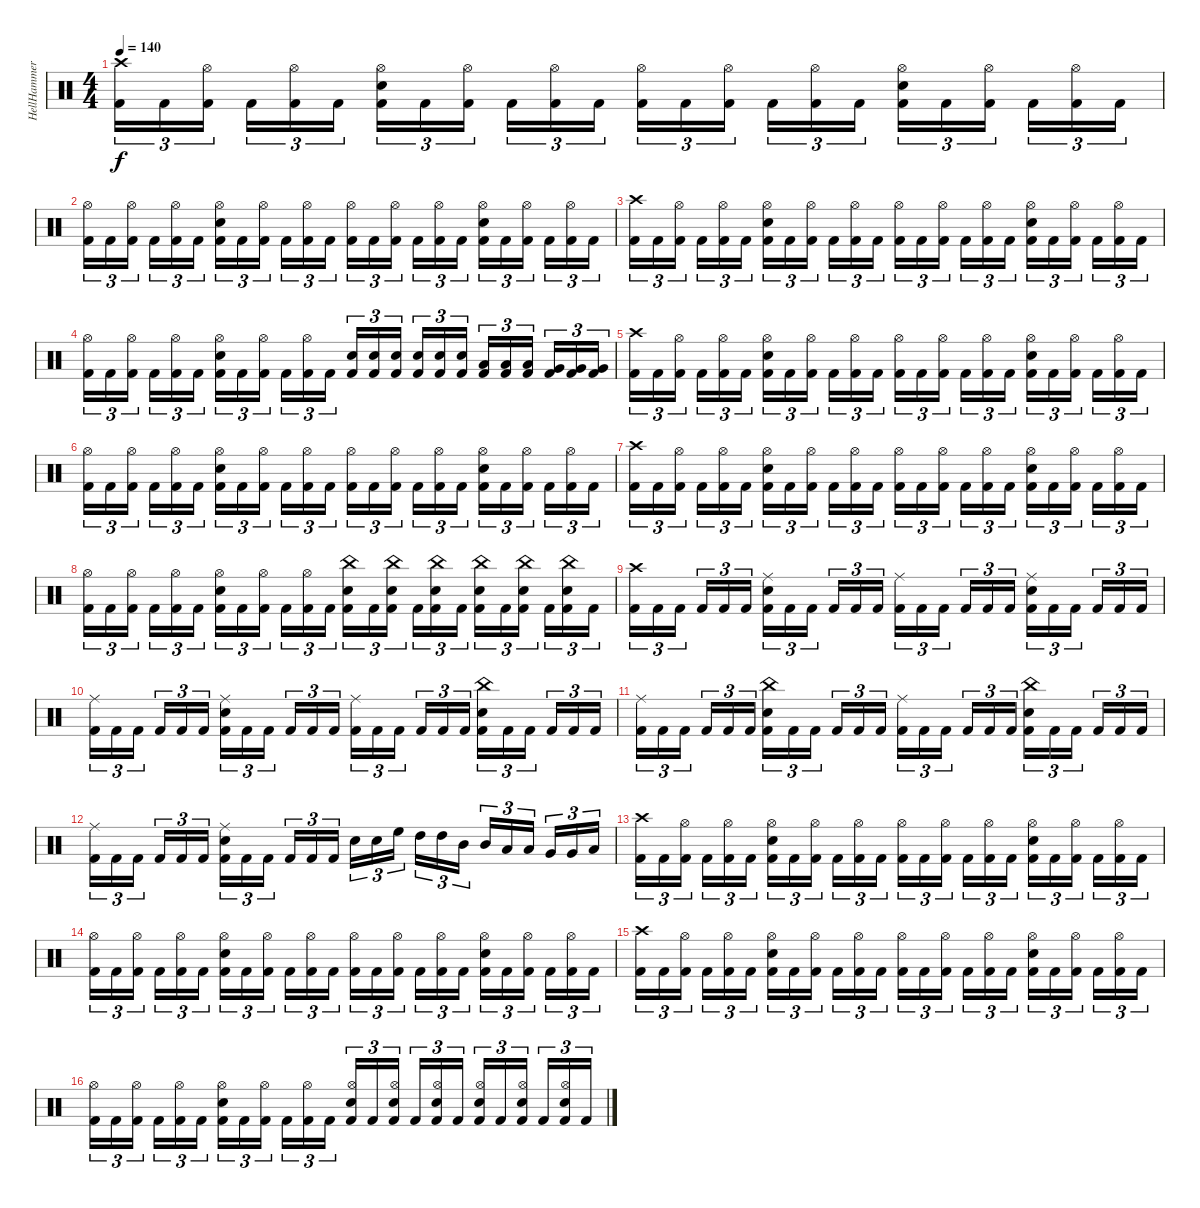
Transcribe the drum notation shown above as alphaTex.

\track ("HellHammer" "HellHammer") {instrument percussion}
\staff {score}
\articulation defaults
\ts (4 4)
\tempo 140
\clef neutral
\ks c
("Crash high (hit)" "Kick (hit) 2").16{tu (3 2) dy f} "Kick (hit) 2".16{tu (3 2)} ("Hi-Hat (open)" "Kick (hit) 2").16{tu (3 2) beam splitsecondary} "Kick (hit) 2".16{tu (3 2)} ("Hi-Hat (open)" "Kick (hit) 2").16{tu (3 2)} "Kick (hit) 2".16{tu (3 2)} ("Hi-Hat (open)" "Electric Snare (hit)" "Kick (hit) 2").16{tu (3 2)} "Kick (hit) 2".16{tu (3 2)} ("Hi-Hat (open)" "Kick (hit) 2").16{tu (3 2) beam splitsecondary} "Kick (hit) 2".16{tu (3 2)} ("Hi-Hat (open)" "Kick (hit) 2").16{tu (3 2)} "Kick (hit) 2".16{tu (3 2)} ("Hi-Hat (open)" "Kick (hit) 2").16{tu (3 2)} "Kick (hit) 2".16{tu (3 2)} ("Hi-Hat (open)" "Kick (hit) 2").16{tu (3 2) beam splitsecondary} "Kick (hit) 2".16{tu (3 2)} ("Hi-Hat (open)" "Kick (hit) 2").16{tu (3 2)} "Kick (hit) 2".16{tu (3 2)} ("Hi-Hat (open)" "Electric Snare (hit)" "Kick (hit) 2").16{tu (3 2)} "Kick (hit) 2".16{tu (3 2)} ("Hi-Hat (open)" "Kick (hit) 2").16{tu (3 2) beam splitsecondary} "Kick (hit) 2".16{tu (3 2)} ("Hi-Hat (open)" "Kick (hit) 2").16{tu (3 2)} "Kick (hit) 2".16{tu (3 2)} |
("Hi-Hat (open)" "Kick (hit) 2").16{tu (3 2)} "Kick (hit) 2".16{tu (3 2)} ("Hi-Hat (open)" "Kick (hit) 2").16{tu (3 2) beam splitsecondary} "Kick (hit) 2".16{tu (3 2)} ("Hi-Hat (open)" "Kick (hit) 2").16{tu (3 2)} "Kick (hit) 2".16{tu (3 2)} ("Hi-Hat (open)" "Electric Snare (hit)" "Kick (hit) 2").16{tu (3 2)} "Kick (hit) 2".16{tu (3 2)} ("Hi-Hat (open)" "Kick (hit) 2").16{tu (3 2) beam splitsecondary} "Kick (hit) 2".16{tu (3 2)} ("Hi-Hat (open)" "Kick (hit) 2").16{tu (3 2)} "Kick (hit) 2".16{tu (3 2)} ("Hi-Hat (open)" "Kick (hit) 2").16{tu (3 2)} "Kick (hit) 2".16{tu (3 2)} ("Hi-Hat (open)" "Kick (hit) 2").16{tu (3 2) beam splitsecondary} "Kick (hit) 2".16{tu (3 2)} ("Hi-Hat (open)" "Kick (hit) 2").16{tu (3 2)} "Kick (hit) 2".16{tu (3 2)} ("Hi-Hat (open)" "Electric Snare (hit)" "Kick (hit) 2").16{tu (3 2)} "Kick (hit) 2".16{tu (3 2)} ("Hi-Hat (open)" "Kick (hit) 2").16{tu (3 2) beam splitsecondary} "Kick (hit) 2".16{tu (3 2)} ("Hi-Hat (open)" "Kick (hit) 2").16{tu (3 2)} "Kick (hit) 2".16{tu (3 2)} |
("Crash high (hit)" "Kick (hit) 2").16{tu (3 2)} "Kick (hit) 2".16{tu (3 2)} ("Hi-Hat (open)" "Kick (hit) 2").16{tu (3 2) beam splitsecondary} "Kick (hit) 2".16{tu (3 2)} ("Hi-Hat (open)" "Kick (hit) 2").16{tu (3 2)} "Kick (hit) 2".16{tu (3 2)} ("Hi-Hat (open)" "Electric Snare (hit)" "Kick (hit) 2").16{tu (3 2)} "Kick (hit) 2".16{tu (3 2)} ("Hi-Hat (open)" "Kick (hit) 2").16{tu (3 2) beam splitsecondary} "Kick (hit) 2".16{tu (3 2)} ("Hi-Hat (open)" "Kick (hit) 2").16{tu (3 2)} "Kick (hit) 2".16{tu (3 2)} ("Hi-Hat (open)" "Kick (hit) 2").16{tu (3 2)} "Kick (hit) 2".16{tu (3 2)} ("Hi-Hat (open)" "Kick (hit) 2").16{tu (3 2) beam splitsecondary} "Kick (hit) 2".16{tu (3 2)} ("Hi-Hat (open)" "Kick (hit) 2").16{tu (3 2)} "Kick (hit) 2".16{tu (3 2)} ("Hi-Hat (open)" "Electric Snare (hit)" "Kick (hit) 2").16{tu (3 2)} "Kick (hit) 2".16{tu (3 2)} ("Hi-Hat (open)" "Kick (hit) 2").16{tu (3 2) beam splitsecondary} "Kick (hit) 2".16{tu (3 2)} ("Hi-Hat (open)" "Kick (hit) 2").16{tu (3 2)} "Kick (hit) 2".16{tu (3 2)} |
("Hi-Hat (open)" "Kick (hit) 2").16{tu (3 2)} "Kick (hit) 2".16{tu (3 2)} ("Hi-Hat (open)" "Kick (hit) 2").16{tu (3 2) beam splitsecondary} "Kick (hit) 2".16{tu (3 2)} ("Hi-Hat (open)" "Kick (hit) 2").16{tu (3 2)} "Kick (hit) 2".16{tu (3 2)} ("Hi-Hat (open)" "Electric Snare (hit)" "Kick (hit) 2").16{tu (3 2)} "Kick (hit) 2".16{tu (3 2)} ("Hi-Hat (open)" "Kick (hit) 2").16{tu (3 2) beam splitsecondary} "Kick (hit) 2".16{tu (3 2)} ("Hi-Hat (open)" "Kick (hit) 2").16{tu (3 2)} "Kick (hit) 2".16{tu (3 2)} ("Electric Snare (hit)" "Kick (hit) 2").16{tu (3 2)} ("Electric Snare (hit)" "Kick (hit) 2").16{tu (3 2)} ("Electric Snare (hit)" "Kick (hit) 2").16{tu (3 2) beam splitsecondary} ("Electric Snare (hit)" "Kick (hit) 2").16{tu (3 2)} ("Electric Snare (hit)" "Kick (hit) 2").16{tu (3 2)} ("Electric Snare (hit)" "Kick (hit) 2").16{tu (3 2)} ("Low Tom (hit)" "Kick (hit) 2").16{tu (3 2)} ("Low Tom (hit)" "Kick (hit) 2").16{tu (3 2)} ("Low Tom (hit)" "Kick (hit) 2").16{tu (3 2) beam splitsecondary} ("Very Low Tom (hit)" "Kick (hit) 2").16{tu (3 2)} ("Very Low Tom (hit)" "Kick (hit) 2").16{tu (3 2)} ("Very Low Tom (hit)" "Kick (hit) 2").16{tu (3 2)} |
("Crash high (hit)" "Kick (hit) 2").16{tu (3 2)} "Kick (hit) 2".16{tu (3 2)} ("Hi-Hat (open)" "Kick (hit) 2").16{tu (3 2) beam splitsecondary} "Kick (hit) 2".16{tu (3 2)} ("Hi-Hat (open)" "Kick (hit) 2").16{tu (3 2)} "Kick (hit) 2".16{tu (3 2)} ("Hi-Hat (open)" "Electric Snare (hit)" "Kick (hit) 2").16{tu (3 2)} "Kick (hit) 2".16{tu (3 2)} ("Hi-Hat (open)" "Kick (hit) 2").16{tu (3 2) beam splitsecondary} "Kick (hit) 2".16{tu (3 2)} ("Hi-Hat (open)" "Kick (hit) 2").16{tu (3 2)} "Kick (hit) 2".16{tu (3 2)} ("Hi-Hat (open)" "Kick (hit) 2").16{tu (3 2)} "Kick (hit) 2".16{tu (3 2)} ("Hi-Hat (open)" "Kick (hit) 2").16{tu (3 2) beam splitsecondary} "Kick (hit) 2".16{tu (3 2)} ("Hi-Hat (open)" "Kick (hit) 2").16{tu (3 2)} "Kick (hit) 2".16{tu (3 2)} ("Hi-Hat (open)" "Electric Snare (hit)" "Kick (hit) 2").16{tu (3 2)} "Kick (hit) 2".16{tu (3 2)} ("Hi-Hat (open)" "Kick (hit) 2").16{tu (3 2) beam splitsecondary} "Kick (hit) 2".16{tu (3 2)} ("Hi-Hat (open)" "Kick (hit) 2").16{tu (3 2)} "Kick (hit) 2".16{tu (3 2)} |
("Hi-Hat (open)" "Kick (hit) 2").16{tu (3 2)} "Kick (hit) 2".16{tu (3 2)} ("Hi-Hat (open)" "Kick (hit) 2").16{tu (3 2) beam splitsecondary} "Kick (hit) 2".16{tu (3 2)} ("Hi-Hat (open)" "Kick (hit) 2").16{tu (3 2)} "Kick (hit) 2".16{tu (3 2)} ("Hi-Hat (open)" "Electric Snare (hit)" "Kick (hit) 2").16{tu (3 2)} "Kick (hit) 2".16{tu (3 2)} ("Hi-Hat (open)" "Kick (hit) 2").16{tu (3 2) beam splitsecondary} "Kick (hit) 2".16{tu (3 2)} ("Hi-Hat (open)" "Kick (hit) 2").16{tu (3 2)} "Kick (hit) 2".16{tu (3 2)} ("Hi-Hat (open)" "Kick (hit) 2").16{tu (3 2)} "Kick (hit) 2".16{tu (3 2)} ("Hi-Hat (open)" "Kick (hit) 2").16{tu (3 2) beam splitsecondary} "Kick (hit) 2".16{tu (3 2)} ("Hi-Hat (open)" "Kick (hit) 2").16{tu (3 2)} "Kick (hit) 2".16{tu (3 2)} ("Hi-Hat (open)" "Electric Snare (hit)" "Kick (hit) 2").16{tu (3 2)} "Kick (hit) 2".16{tu (3 2)} ("Hi-Hat (open)" "Kick (hit) 2").16{tu (3 2) beam splitsecondary} "Kick (hit) 2".16{tu (3 2)} ("Hi-Hat (open)" "Kick (hit) 2").16{tu (3 2)} "Kick (hit) 2".16{tu (3 2)} |
("Crash high (hit)" "Kick (hit) 2").16{tu (3 2)} "Kick (hit) 2".16{tu (3 2)} ("Hi-Hat (open)" "Kick (hit) 2").16{tu (3 2) beam splitsecondary} "Kick (hit) 2".16{tu (3 2)} ("Hi-Hat (open)" "Kick (hit) 2").16{tu (3 2)} "Kick (hit) 2".16{tu (3 2)} ("Hi-Hat (open)" "Electric Snare (hit)" "Kick (hit) 2").16{tu (3 2)} "Kick (hit) 2".16{tu (3 2)} ("Hi-Hat (open)" "Kick (hit) 2").16{tu (3 2) beam splitsecondary} "Kick (hit) 2".16{tu (3 2)} ("Hi-Hat (open)" "Kick (hit) 2").16{tu (3 2)} "Kick (hit) 2".16{tu (3 2)} ("Hi-Hat (open)" "Kick (hit) 2").16{tu (3 2)} "Kick (hit) 2".16{tu (3 2)} ("Hi-Hat (open)" "Kick (hit) 2").16{tu (3 2) beam splitsecondary} "Kick (hit) 2".16{tu (3 2)} ("Hi-Hat (open)" "Kick (hit) 2").16{tu (3 2)} "Kick (hit) 2".16{tu (3 2)} ("Hi-Hat (open)" "Electric Snare (hit)" "Kick (hit) 2").16{tu (3 2)} "Kick (hit) 2".16{tu (3 2)} ("Hi-Hat (open)" "Kick (hit) 2").16{tu (3 2) beam splitsecondary} "Kick (hit) 2".16{tu (3 2)} ("Hi-Hat (open)" "Kick (hit) 2").16{tu (3 2)} "Kick (hit) 2".16{tu (3 2)} |
("Hi-Hat (open)" "Kick (hit) 2").16{tu (3 2)} "Kick (hit) 2".16{tu (3 2)} ("Hi-Hat (open)" "Kick (hit) 2").16{tu (3 2) beam splitsecondary} "Kick (hit) 2".16{tu (3 2)} ("Hi-Hat (open)" "Kick (hit) 2").16{tu (3 2)} "Kick (hit) 2".16{tu (3 2)} ("Hi-Hat (open)" "Electric Snare (hit)" "Kick (hit) 2").16{tu (3 2)} "Kick (hit) 2".16{tu (3 2)} ("Hi-Hat (open)" "Kick (hit) 2").16{tu (3 2) beam splitsecondary} "Kick (hit) 2".16{tu (3 2)} ("Hi-Hat (open)" "Kick (hit) 2").16{tu (3 2)} "Kick (hit) 2".16{tu (3 2)} ("China (hit)" "Electric Snare (hit)" "Kick (hit) 2").16{tu (3 2)} "Kick (hit) 2".16{tu (3 2)} ("China (hit)" "Electric Snare (hit)" "Kick (hit) 2").16{tu (3 2) beam splitsecondary} "Kick (hit) 2".16{tu (3 2)} ("China (hit)" "Electric Snare (hit)" "Kick (hit) 2").16{tu (3 2)} "Kick (hit) 2".16{tu (3 2)} ("China (hit)" "Electric Snare (hit)" "Kick (hit) 2").16{tu (3 2)} "Kick (hit) 2".16{tu (3 2)} ("China (hit)" "Electric Snare (hit)" "Kick (hit) 2").16{tu (3 2) beam splitsecondary} "Kick (hit) 2".16{tu (3 2)} ("China (hit)" "Electric Snare (hit)" "Kick (hit) 2").16{tu (3 2)} "Kick (hit) 2".16{tu (3 2)} |
("Crash high (hit)" "Kick (hit) 2").16{tu (3 2)} "Kick (hit) 2".16{tu (3 2)} "Kick (hit) 2".16{tu (3 2) beam splitsecondary} "Kick (hit) 2".16{tu (3 2)} "Kick (hit) 2".16{tu (3 2)} "Kick (hit) 2".16{tu (3 2)} ("Ride (middle)" "Electric Snare (hit)" "Kick (hit) 2").16{tu (3 2)} "Kick (hit) 2".16{tu (3 2)} "Kick (hit) 2".16{tu (3 2) beam splitsecondary} "Kick (hit) 2".16{tu (3 2)} "Kick (hit) 2".16{tu (3 2)} "Kick (hit) 2".16{tu (3 2)} ("Ride (middle)" "Kick (hit) 2").16{tu (3 2)} "Kick (hit) 2".16{tu (3 2)} "Kick (hit) 2".16{tu (3 2) beam splitsecondary} "Kick (hit) 2".16{tu (3 2)} "Kick (hit) 2".16{tu (3 2)} "Kick (hit) 2".16{tu (3 2)} ("Ride (middle)" "Electric Snare (hit)" "Kick (hit) 2").16{tu (3 2)} "Kick (hit) 2".16{tu (3 2)} "Kick (hit) 2".16{tu (3 2) beam splitsecondary} "Kick (hit) 2".16{tu (3 2)} "Kick (hit) 2".16{tu (3 2)} "Kick (hit) 2".16{tu (3 2)} |
("Ride (middle)" "Kick (hit) 2").16{tu (3 2)} "Kick (hit) 2".16{tu (3 2)} "Kick (hit) 2".16{tu (3 2) beam splitsecondary} "Kick (hit) 2".16{tu (3 2)} "Kick (hit) 2".16{tu (3 2)} "Kick (hit) 2".16{tu (3 2)} ("Ride (middle)" "Electric Snare (hit)" "Kick (hit) 2").16{tu (3 2)} "Kick (hit) 2".16{tu (3 2)} "Kick (hit) 2".16{tu (3 2) beam splitsecondary} "Kick (hit) 2".16{tu (3 2)} "Kick (hit) 2".16{tu (3 2)} "Kick (hit) 2".16{tu (3 2)} ("Ride (middle)" "Kick (hit) 2").16{tu (3 2)} "Kick (hit) 2".16{tu (3 2)} "Kick (hit) 2".16{tu (3 2) beam splitsecondary} "Kick (hit) 2".16{tu (3 2)} "Kick (hit) 2".16{tu (3 2)} "Kick (hit) 2".16{tu (3 2)} ("China (hit)" "Electric Snare (hit)" "Kick (hit) 2").16{tu (3 2)} "Kick (hit) 2".16{tu (3 2)} "Kick (hit) 2".16{tu (3 2) beam splitsecondary} "Kick (hit) 2".16{tu (3 2)} "Kick (hit) 2".16{tu (3 2)} "Kick (hit) 2".16{tu (3 2)} |
("Ride (middle)" "Kick (hit) 2").16{tu (3 2)} "Kick (hit) 2".16{tu (3 2)} "Kick (hit) 2".16{tu (3 2) beam splitsecondary} "Kick (hit) 2".16{tu (3 2)} "Kick (hit) 2".16{tu (3 2)} "Kick (hit) 2".16{tu (3 2)} ("China (hit)" "Electric Snare (hit)" "Kick (hit) 2").16{tu (3 2)} "Kick (hit) 2".16{tu (3 2)} "Kick (hit) 2".16{tu (3 2) beam splitsecondary} "Kick (hit) 2".16{tu (3 2)} "Kick (hit) 2".16{tu (3 2)} "Kick (hit) 2".16{tu (3 2)} ("Ride (middle)" "Kick (hit) 2").16{tu (3 2)} "Kick (hit) 2".16{tu (3 2)} "Kick (hit) 2".16{tu (3 2) beam splitsecondary} "Kick (hit) 2".16{tu (3 2)} "Kick (hit) 2".16{tu (3 2)} "Kick (hit) 2".16{tu (3 2)} ("China (hit)" "Electric Snare (hit)" "Kick (hit) 2").16{tu (3 2)} "Kick (hit) 2".16{tu (3 2)} "Kick (hit) 2".16{tu (3 2) beam splitsecondary} "Kick (hit) 2".16{tu (3 2)} "Kick (hit) 2".16{tu (3 2)} "Kick (hit) 2".16{tu (3 2)} |
("Ride (middle)" "Kick (hit) 2").16{tu (3 2)} "Kick (hit) 2".16{tu (3 2)} "Kick (hit) 2".16{tu (3 2) beam splitsecondary} "Kick (hit) 2".16{tu (3 2)} "Kick (hit) 2".16{tu (3 2)} "Kick (hit) 2".16{tu (3 2)} ("Ride (middle)" "Electric Snare (hit)" "Kick (hit) 2").16{tu (3 2)} "Kick (hit) 2".16{tu (3 2)} "Kick (hit) 2".16{tu (3 2) beam splitsecondary} "Kick (hit) 2".16{tu (3 2)} "Kick (hit) 2".16{tu (3 2)} "Kick (hit) 2".16{tu (3 2)} "Electric Snare (hit)".16{tu (3 2)} "Electric Snare (hit)".16{tu (3 2)} "High Floor Tom (hit)".16{tu (3 2) beam splitsecondary} "High Tom (hit)".16{tu (3 2)} "High Tom (hit)".16{tu (3 2)} "Mid Tom (hit)".16{tu (3 2)} "Mid Tom (hit)".16{tu (3 2)} "Low Tom (hit)".16{tu (3 2)} "Low Tom (hit)".16{tu (3 2) beam splitsecondary} "Very Low Tom (hit)".16{tu (3 2)} "Very Low Tom (hit)".16{tu (3 2)} "Low Floor Tom (hit)".16{tu (3 2)} |
("Crash high (hit)" "Kick (hit) 2").16{tu (3 2)} "Kick (hit) 2".16{tu (3 2)} ("Hi-Hat (open)" "Kick (hit) 2").16{tu (3 2) beam splitsecondary} "Kick (hit) 2".16{tu (3 2)} ("Hi-Hat (open)" "Kick (hit) 2").16{tu (3 2)} "Kick (hit) 2".16{tu (3 2)} ("Hi-Hat (open)" "Electric Snare (hit)" "Kick (hit) 2").16{tu (3 2)} "Kick (hit) 2".16{tu (3 2)} ("Hi-Hat (open)" "Kick (hit) 2").16{tu (3 2) beam splitsecondary} "Kick (hit) 2".16{tu (3 2)} ("Hi-Hat (open)" "Kick (hit) 2").16{tu (3 2)} "Kick (hit) 2".16{tu (3 2)} ("Hi-Hat (open)" "Kick (hit) 2").16{tu (3 2)} "Kick (hit) 2".16{tu (3 2)} ("Hi-Hat (open)" "Kick (hit) 2").16{tu (3 2) beam splitsecondary} "Kick (hit) 2".16{tu (3 2)} ("Hi-Hat (open)" "Kick (hit) 2").16{tu (3 2)} "Kick (hit) 2".16{tu (3 2)} ("Hi-Hat (open)" "Electric Snare (hit)" "Kick (hit) 2").16{tu (3 2)} "Kick (hit) 2".16{tu (3 2)} ("Hi-Hat (open)" "Kick (hit) 2").16{tu (3 2) beam splitsecondary} "Kick (hit) 2".16{tu (3 2)} ("Hi-Hat (open)" "Kick (hit) 2").16{tu (3 2)} "Kick (hit) 2".16{tu (3 2)} |
("Hi-Hat (open)" "Kick (hit) 2").16{tu (3 2)} "Kick (hit) 2".16{tu (3 2)} ("Hi-Hat (open)" "Kick (hit) 2").16{tu (3 2) beam splitsecondary} "Kick (hit) 2".16{tu (3 2)} ("Hi-Hat (open)" "Kick (hit) 2").16{tu (3 2)} "Kick (hit) 2".16{tu (3 2)} ("Hi-Hat (open)" "Electric Snare (hit)" "Kick (hit) 2").16{tu (3 2)} "Kick (hit) 2".16{tu (3 2)} ("Hi-Hat (open)" "Kick (hit) 2").16{tu (3 2) beam splitsecondary} "Kick (hit) 2".16{tu (3 2)} ("Hi-Hat (open)" "Kick (hit) 2").16{tu (3 2)} "Kick (hit) 2".16{tu (3 2)} ("Hi-Hat (open)" "Kick (hit) 2").16{tu (3 2)} "Kick (hit) 2".16{tu (3 2)} ("Hi-Hat (open)" "Kick (hit) 2").16{tu (3 2) beam splitsecondary} "Kick (hit) 2".16{tu (3 2)} ("Hi-Hat (open)" "Kick (hit) 2").16{tu (3 2)} "Kick (hit) 2".16{tu (3 2)} ("Hi-Hat (open)" "Electric Snare (hit)" "Kick (hit) 2").16{tu (3 2)} "Kick (hit) 2".16{tu (3 2)} ("Hi-Hat (open)" "Kick (hit) 2").16{tu (3 2) beam splitsecondary} "Kick (hit) 2".16{tu (3 2)} ("Hi-Hat (open)" "Kick (hit) 2").16{tu (3 2)} "Kick (hit) 2".16{tu (3 2)} |
("Crash high (hit)" "Kick (hit) 2").16{tu (3 2)} "Kick (hit) 2".16{tu (3 2)} ("Hi-Hat (open)" "Kick (hit) 2").16{tu (3 2) beam splitsecondary} "Kick (hit) 2".16{tu (3 2)} ("Hi-Hat (open)" "Kick (hit) 2").16{tu (3 2)} "Kick (hit) 2".16{tu (3 2)} ("Hi-Hat (open)" "Electric Snare (hit)" "Kick (hit) 2").16{tu (3 2)} "Kick (hit) 2".16{tu (3 2)} ("Hi-Hat (open)" "Kick (hit) 2").16{tu (3 2) beam splitsecondary} "Kick (hit) 2".16{tu (3 2)} ("Hi-Hat (open)" "Kick (hit) 2").16{tu (3 2)} "Kick (hit) 2".16{tu (3 2)} ("Hi-Hat (open)" "Kick (hit) 2").16{tu (3 2)} "Kick (hit) 2".16{tu (3 2)} ("Hi-Hat (open)" "Kick (hit) 2").16{tu (3 2) beam splitsecondary} "Kick (hit) 2".16{tu (3 2)} ("Hi-Hat (open)" "Kick (hit) 2").16{tu (3 2)} "Kick (hit) 2".16{tu (3 2)} ("Hi-Hat (open)" "Electric Snare (hit)" "Kick (hit) 2").16{tu (3 2)} "Kick (hit) 2".16{tu (3 2)} ("Hi-Hat (open)" "Kick (hit) 2").16{tu (3 2) beam splitsecondary} "Kick (hit) 2".16{tu (3 2)} ("Hi-Hat (open)" "Kick (hit) 2").16{tu (3 2)} "Kick (hit) 2".16{tu (3 2)} |
("Hi-Hat (open)" "Kick (hit) 2").16{tu (3 2)} "Kick (hit) 2".16{tu (3 2)} ("Hi-Hat (open)" "Kick (hit) 2").16{tu (3 2) beam splitsecondary} "Kick (hit) 2".16{tu (3 2)} ("Hi-Hat (open)" "Kick (hit) 2").16{tu (3 2)} "Kick (hit) 2".16{tu (3 2)} ("Hi-Hat (open)" "Electric Snare (hit)" "Kick (hit) 2").16{tu (3 2)} "Kick (hit) 2".16{tu (3 2)} ("Hi-Hat (open)" "Kick (hit) 2").16{tu (3 2) beam splitsecondary} "Kick (hit) 2".16{tu (3 2)} ("Hi-Hat (open)" "Kick (hit) 2").16{tu (3 2)} "Kick (hit) 2".16{tu (3 2)} ("Hi-Hat (open)" "Electric Snare (hit)" "Kick (hit) 2").16{tu (3 2)} "Kick (hit) 2".16{tu (3 2)} ("Hi-Hat (open)" "Electric Snare (hit)" "Kick (hit) 2").16{tu (3 2) beam splitsecondary} "Kick (hit) 2".16{tu (3 2)} ("Hi-Hat (open)" "Electric Snare (hit)" "Kick (hit) 2").16{tu (3 2)} "Kick (hit) 2".16{tu (3 2)} ("Hi-Hat (open)" "Electric Snare (hit)" "Kick (hit) 2").16{tu (3 2)} "Kick (hit) 2".16{tu (3 2)} ("Hi-Hat (open)" "Electric Snare (hit)" "Kick (hit) 2").16{tu (3 2) beam splitsecondary} "Kick (hit) 2".16{tu (3 2)} ("Hi-Hat (open)" "Electric Snare (hit)" "Kick (hit) 2").16{tu (3 2)} "Kick (hit) 2".16{tu (3 2)}
